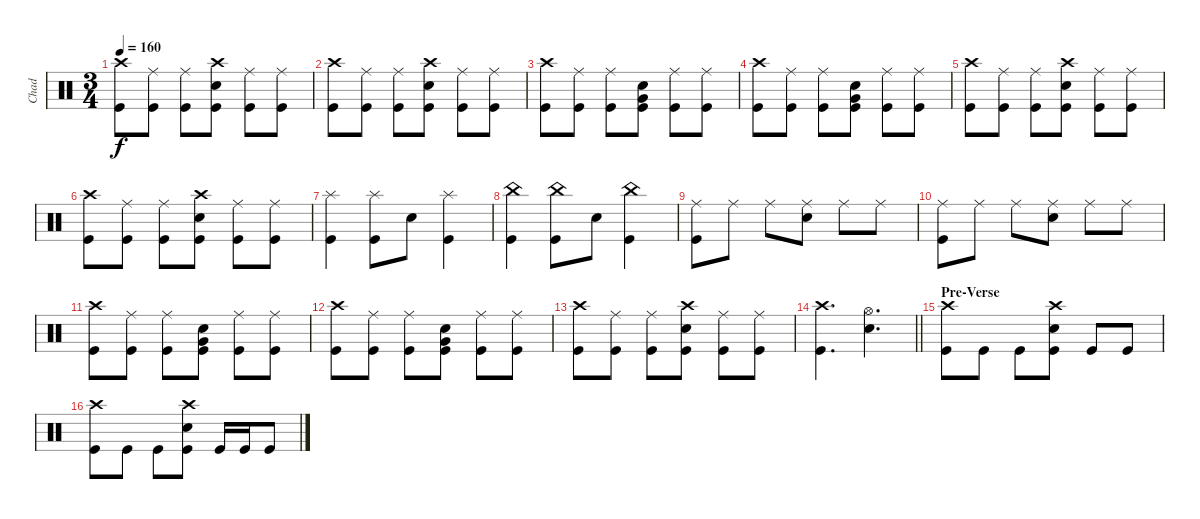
\track ("Chad" "Chad") {instrument percussion}
\staff {score}
\articulation defaults
\ts (3 4)
\tempo 160
\clef neutral
\ks c
("Crash high (hit)" "Kick (hit)").8{dy f} ("Ride (middle)" "Kick (hit)").8 ("Ride (middle)" "Kick (hit)").8 ("Crash high (hit)" "Snare (hit) 2" "Kick (hit)").8 ("Ride (middle)" "Kick (hit)").8 ("Ride (middle)" "Kick (hit)").8 |
("Crash high (hit)" "Kick (hit)").8 ("Ride (middle)" "Kick (hit)").8 ("Ride (middle)" "Kick (hit)").8 ("Crash high (hit)" "Snare (hit) 2" "Kick (hit)").8 ("Ride (middle)" "Kick (hit)").8 ("Ride (middle)" "Kick (hit)").8 |
("Kick (hit)" "Crash high (hit)").8 ("Kick (hit)" "Ride (middle)").8 ("Kick (hit)" "Ride (middle)").8 ("Kick (hit)" "Snare (hit) 2" "Very Low Tom (hit)").8 ("Kick (hit)" "Ride (middle)").8 ("Kick (hit)" "Ride (middle)").8 |
("Kick (hit)" "Crash high (hit)").8 ("Kick (hit)" "Ride (middle)").8 ("Kick (hit)" "Ride (middle)").8 ("Kick (hit)" "Snare (hit) 2" "Very Low Tom (hit)").8 ("Kick (hit)" "Ride (middle)").8 ("Ride (middle)" "Kick (hit)").8 |
("Crash high (hit)" "Kick (hit)").8 ("Ride (middle)" "Kick (hit)").8 ("Ride (middle)" "Kick (hit)").8 ("Crash high (hit)" "Snare (hit) 2" "Kick (hit)").8 ("Ride (middle)" "Kick (hit)").8 ("Ride (middle)" "Kick (hit)").8 |
("Crash high (hit)" "Kick (hit)").8 ("Ride (middle)" "Kick (hit)").8 ("Ride (middle)" "Kick (hit)").8 ("Crash high (hit)" "Snare (hit) 2" "Kick (hit)").8 ("Ride (middle)" "Kick (hit)").8 ("Ride (middle)" "Kick (hit)").8 |
("Splash (hit)" "Kick (hit)").4 ("Splash (hit)" "Kick (hit)").8 "Snare (hit) 2".8 ("Splash (hit)" "Kick (hit)").4 |
("Kick (hit)" "China (hit)").4 ("China (hit)" "Kick (hit)").8 "Snare (hit) 2".8 ("China (hit)" "Kick (hit)").4 |
("Ride (middle)" "Kick (hit)").8 "Ride (middle)".8 "Ride (middle)".8 ("Ride (middle)" "Snare (hit) 2").8 "Ride (middle)".8 "Ride (middle)".8 |
("Ride (middle)" "Kick (hit)").8 "Ride (middle)".8 "Ride (middle)".8 ("Ride (middle)" "Snare (hit) 2").8 "Ride (middle)".8 "Ride (middle)".8 |
("Kick (hit)" "Crash high (hit)").8 ("Kick (hit)" "Ride (middle)").8 ("Kick (hit)" "Ride (middle)").8 ("Kick (hit)" "Snare (hit) 2" "Very Low Tom (hit)").8 ("Kick (hit)" "Ride (middle)").8 ("Kick (hit)" "Ride (middle)").8 |
("Kick (hit)" "Crash high (hit)").8 ("Kick (hit)" "Ride (middle)").8 ("Kick (hit)" "Ride (middle)").8 ("Kick (hit)" "Snare (hit) 2" "Very Low Tom (hit)").8 ("Kick (hit)" "Ride (middle)").8 ("Ride (middle)" "Kick (hit)").8 |
("Crash high (hit)" "Kick (hit)").8 ("Ride (middle)" "Kick (hit)").8 ("Ride (middle)" "Kick (hit)").8 ("Crash high (hit)" "Snare (hit) 2" "Kick (hit)").8 ("Ride (middle)" "Kick (hit)").8 ("Ride (middle)" "Kick (hit)").8 |
\barLineRight lightlight
("Kick (hit)" "Crash high (hit)").4{d} ("Snare (hit) 2" "Hi-Hat (open)").4{d} |
\section ("" "Pre-Verse")
("Crash high (hit)" "Kick (hit)").8 "Kick (hit)".8 "Kick (hit)".8 ("Kick (hit)" "Snare (hit) 2" "Crash high (hit)").8 "Kick (hit)".8 "Kick (hit)".8 |
("Crash high (hit)" "Kick (hit)").8 "Kick (hit)".8 "Kick (hit)".8 ("Kick (hit)" "Snare (hit) 2" "Crash high (hit)").8 "Kick (hit)".16 "Kick (hit)".16 "Kick (hit)".8
